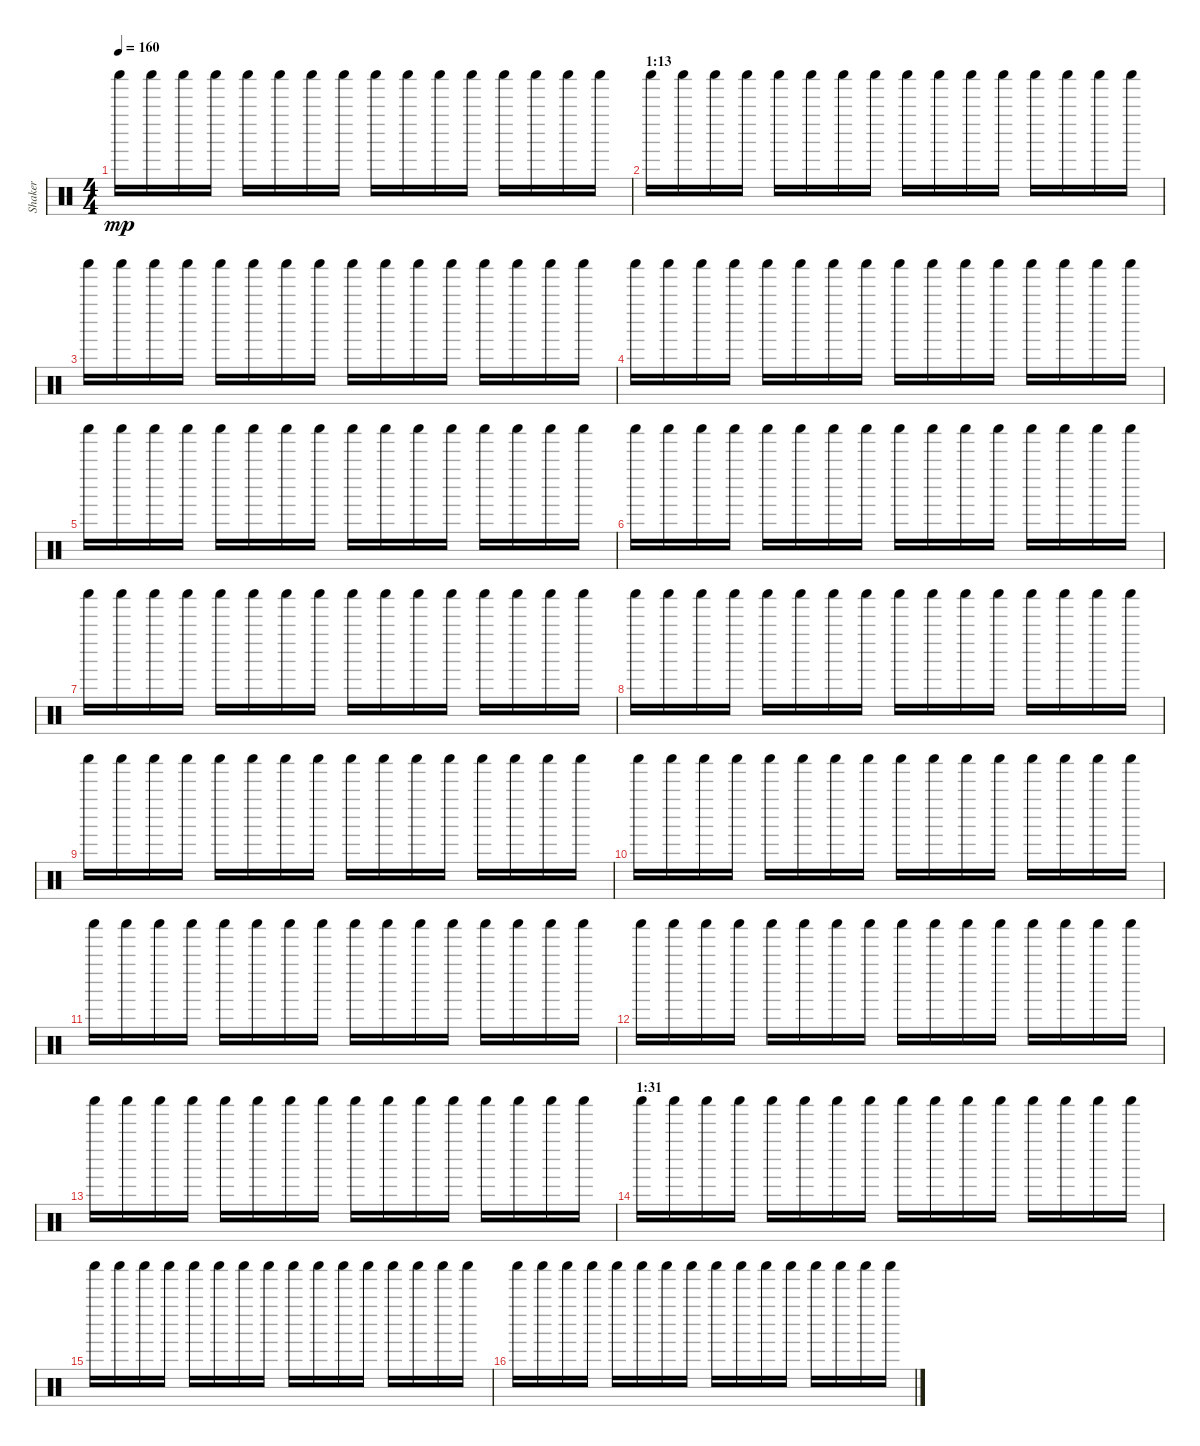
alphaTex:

\track ("Shaker" "Shaker") {instrument percussion}
\staff {score}
\articulation defaults
\ts (4 4)
\tempo 160
\clef neutral
\ks c "Shaker (hit)".16{dy mp} "Shaker (hit)".16 "Shaker (hit)".16 "Shaker (hit)".16 "Shaker (hit)".16 "Shaker (hit)".16 "Shaker (hit)".16 "Shaker (hit)".16 "Shaker (hit)".16 "Shaker (hit)".16 "Shaker (hit)".16 "Shaker (hit)".16 "Shaker (hit)".16 "Shaker (hit)".16 "Shaker (hit)".16 "Shaker (hit)".16
|
\section ("" "1:13")
"Shaker (hit)".16 "Shaker (hit)".16 "Shaker (hit)".16 "Shaker (hit)".16 "Shaker (hit)".16 "Shaker (hit)".16 "Shaker (hit)".16 "Shaker (hit)".16 "Shaker (hit)".16 "Shaker (hit)".16 "Shaker (hit)".16 "Shaker (hit)".16 "Shaker (hit)".16 "Shaker (hit)".16 "Shaker (hit)".16 "Shaker (hit)".16 |
"Shaker (hit)".16 "Shaker (hit)".16 "Shaker (hit)".16 "Shaker (hit)".16 "Shaker (hit)".16 "Shaker (hit)".16 "Shaker (hit)".16 "Shaker (hit)".16 "Shaker (hit)".16 "Shaker (hit)".16 "Shaker (hit)".16 "Shaker (hit)".16 "Shaker (hit)".16 "Shaker (hit)".16 "Shaker (hit)".16 "Shaker (hit)".16 |
"Shaker (hit)".16 "Shaker (hit)".16 "Shaker (hit)".16 "Shaker (hit)".16 "Shaker (hit)".16 "Shaker (hit)".16 "Shaker (hit)".16 "Shaker (hit)".16 "Shaker (hit)".16 "Shaker (hit)".16 "Shaker (hit)".16 "Shaker (hit)".16 "Shaker (hit)".16 "Shaker (hit)".16 "Shaker (hit)".16 "Shaker (hit)".16 |
"Shaker (hit)".16 "Shaker (hit)".16 "Shaker (hit)".16 "Shaker (hit)".16 "Shaker (hit)".16 "Shaker (hit)".16 "Shaker (hit)".16 "Shaker (hit)".16 "Shaker (hit)".16 "Shaker (hit)".16 "Shaker (hit)".16 "Shaker (hit)".16 "Shaker (hit)".16 "Shaker (hit)".16 "Shaker (hit)".16 "Shaker (hit)".16 |
"Shaker (hit)".16 "Shaker (hit)".16 "Shaker (hit)".16 "Shaker (hit)".16 "Shaker (hit)".16 "Shaker (hit)".16 "Shaker (hit)".16 "Shaker (hit)".16 "Shaker (hit)".16 "Shaker (hit)".16 "Shaker (hit)".16 "Shaker (hit)".16 "Shaker (hit)".16 "Shaker (hit)".16 "Shaker (hit)".16 "Shaker (hit)".16 |
"Shaker (hit)".16 "Shaker (hit)".16 "Shaker (hit)".16 "Shaker (hit)".16 "Shaker (hit)".16 "Shaker (hit)".16 "Shaker (hit)".16 "Shaker (hit)".16 "Shaker (hit)".16 "Shaker (hit)".16 "Shaker (hit)".16 "Shaker (hit)".16 "Shaker (hit)".16 "Shaker (hit)".16 "Shaker (hit)".16 "Shaker (hit)".16 |
"Shaker (hit)".16 "Shaker (hit)".16 "Shaker (hit)".16 "Shaker (hit)".16 "Shaker (hit)".16 "Shaker (hit)".16 "Shaker (hit)".16 "Shaker (hit)".16 "Shaker (hit)".16 "Shaker (hit)".16 "Shaker (hit)".16 "Shaker (hit)".16 "Shaker (hit)".16 "Shaker (hit)".16 "Shaker (hit)".16 "Shaker (hit)".16 |
"Shaker (hit)".16 "Shaker (hit)".16 "Shaker (hit)".16 "Shaker (hit)".16 "Shaker (hit)".16 "Shaker (hit)".16 "Shaker (hit)".16 "Shaker (hit)".16 "Shaker (hit)".16 "Shaker (hit)".16 "Shaker (hit)".16 "Shaker (hit)".16 "Shaker (hit)".16 "Shaker (hit)".16 "Shaker (hit)".16 "Shaker (hit)".16 |
"Shaker (hit)".16 "Shaker (hit)".16 "Shaker (hit)".16 "Shaker (hit)".16 "Shaker (hit)".16 "Shaker (hit)".16 "Shaker (hit)".16 "Shaker (hit)".16 "Shaker (hit)".16 "Shaker (hit)".16 "Shaker (hit)".16 "Shaker (hit)".16 "Shaker (hit)".16 "Shaker (hit)".16 "Shaker (hit)".16 "Shaker (hit)".16 |
"Shaker (hit)".16 "Shaker (hit)".16 "Shaker (hit)".16 "Shaker (hit)".16 "Shaker (hit)".16 "Shaker (hit)".16 "Shaker (hit)".16 "Shaker (hit)".16 "Shaker (hit)".16 "Shaker (hit)".16 "Shaker (hit)".16 "Shaker (hit)".16 "Shaker (hit)".16 "Shaker (hit)".16 "Shaker (hit)".16 "Shaker (hit)".16 |
"Shaker (hit)".16 "Shaker (hit)".16 "Shaker (hit)".16 "Shaker (hit)".16 "Shaker (hit)".16 "Shaker (hit)".16 "Shaker (hit)".16 "Shaker (hit)".16 "Shaker (hit)".16 "Shaker (hit)".16 "Shaker (hit)".16 "Shaker (hit)".16 "Shaker (hit)".16 "Shaker (hit)".16 "Shaker (hit)".16 "Shaker (hit)".16 |
"Shaker (hit)".16 "Shaker (hit)".16 "Shaker (hit)".16 "Shaker (hit)".16 "Shaker (hit)".16 "Shaker (hit)".16 "Shaker (hit)".16 "Shaker (hit)".16 "Shaker (hit)".16 "Shaker (hit)".16 "Shaker (hit)".16 "Shaker (hit)".16 "Shaker (hit)".16 "Shaker (hit)".16 "Shaker (hit)".16 "Shaker (hit)".16 |
\section ("" "1:31")
"Shaker (hit)".16 "Shaker (hit)".16 "Shaker (hit)".16 "Shaker (hit)".16 "Shaker (hit)".16 "Shaker (hit)".16 "Shaker (hit)".16 "Shaker (hit)".16 "Shaker (hit)".16 "Shaker (hit)".16 "Shaker (hit)".16 "Shaker (hit)".16 "Shaker (hit)".16 "Shaker (hit)".16 "Shaker (hit)".16 "Shaker (hit)".16 |
"Shaker (hit)".16 "Shaker (hit)".16 "Shaker (hit)".16 "Shaker (hit)".16 "Shaker (hit)".16 "Shaker (hit)".16 "Shaker (hit)".16 "Shaker (hit)".16 "Shaker (hit)".16 "Shaker (hit)".16 "Shaker (hit)".16 "Shaker (hit)".16 "Shaker (hit)".16 "Shaker (hit)".16 "Shaker (hit)".16 "Shaker (hit)".16 |
"Shaker (hit)".16 "Shaker (hit)".16 "Shaker (hit)".16 "Shaker (hit)".16 "Shaker (hit)".16 "Shaker (hit)".16 "Shaker (hit)".16 "Shaker (hit)".16 "Shaker (hit)".16 "Shaker (hit)".16 "Shaker (hit)".16 "Shaker (hit)".16 "Shaker (hit)".16 "Shaker (hit)".16 "Shaker (hit)".16 "Shaker (hit)".16
